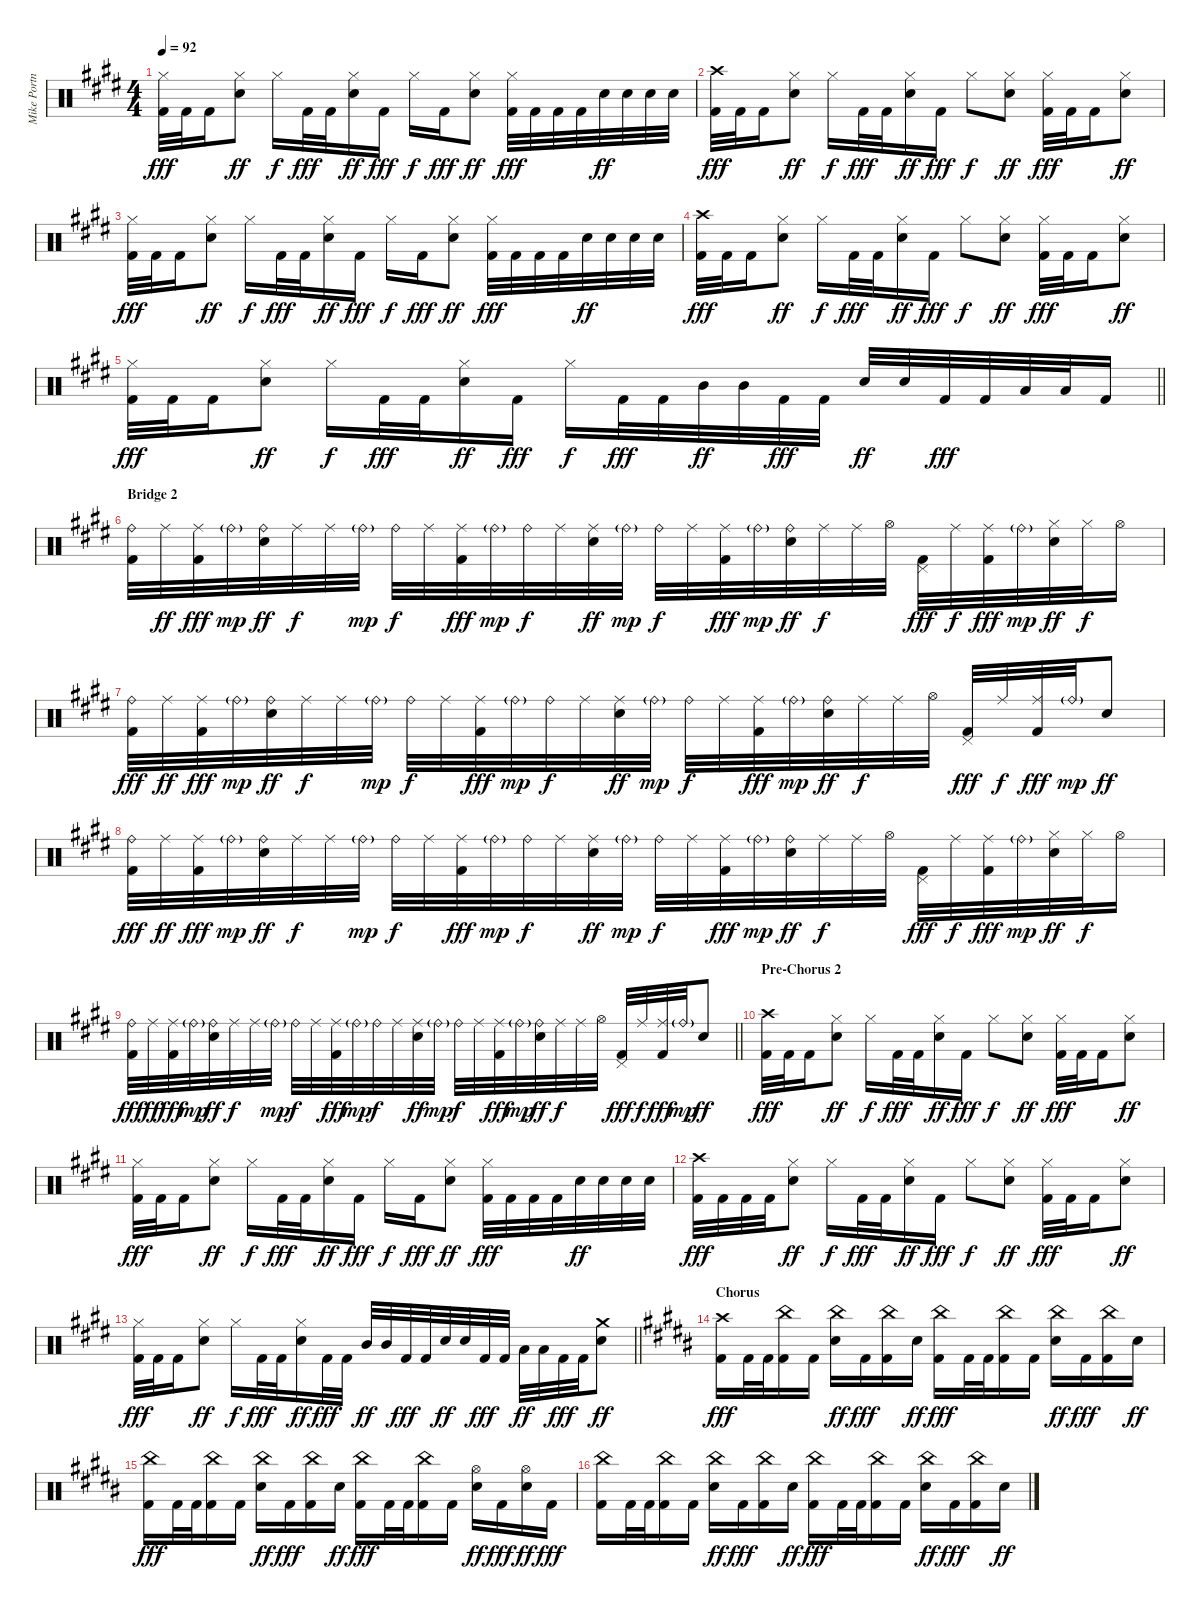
\track ("Mike Portnoy" "Mike Portn") {instrument percussion}
\staff {score}
\articulation defaults
\ts (4 4)
\tempo 92
\clef neutral
\ks e
("Hi-Hat (closed)" "Kick (hit) 2").32{dy fff} "Kick (hit) 2".32 "Kick (hit) 2".16 ("Hi-Hat (closed)" "Electric Snare (hit)").8{dy ff} "Hi-Hat (closed)".16{dy f} "Kick (hit) 2".32{dy fff} "Kick (hit) 2".32 ("Hi-Hat (closed)" "Electric Snare (hit)").16{dy ff} "Kick (hit) 2".16{dy fff} "Hi-Hat (closed)".16{dy f} "Kick (hit) 2".16{dy fff} ("Hi-Hat (closed)" "Electric Snare (hit)").8{dy ff} ("Hi-Hat (closed)" "Kick (hit) 2").32{dy fff} "Kick (hit) 2".32 "Kick (hit) 2".32 "Kick (hit) 2".32 "Electric Snare (hit)".32{dy ff} "Electric Snare (hit)".32 "Electric Snare (hit)".32 "Electric Snare (hit)".32 |
("Crash high (hit)" "Kick (hit) 2").32{dy fff} "Kick (hit) 2".32 "Kick (hit) 2".16 ("Hi-Hat (closed)" "Electric Snare (hit)").8{dy ff} "Hi-Hat (closed)".16{dy f} "Kick (hit) 2".32{dy fff} "Kick (hit) 2".32 ("Hi-Hat (closed)" "Electric Snare (hit)").16{dy ff} "Kick (hit) 2".16{dy fff} "Hi-Hat (closed)".8{dy f} ("Hi-Hat (closed)" "Electric Snare (hit)").8{dy ff} ("Hi-Hat (closed)" "Kick (hit) 2").32{dy fff} "Kick (hit) 2".32 "Kick (hit) 2".16 ("Hi-Hat (closed)" "Electric Snare (hit)").8{dy ff} |
("Hi-Hat (closed)" "Kick (hit) 2").32{dy fff} "Kick (hit) 2".32 "Kick (hit) 2".16 ("Hi-Hat (closed)" "Electric Snare (hit)").8{dy ff} "Hi-Hat (closed)".16{dy f} "Kick (hit) 2".32{dy fff} "Kick (hit) 2".32 ("Hi-Hat (closed)" "Electric Snare (hit)").16{dy ff} "Kick (hit) 2".16{dy fff} "Hi-Hat (closed)".16{dy f} "Kick (hit) 2".16{dy fff} ("Hi-Hat (closed)" "Electric Snare (hit)").8{dy ff} ("Hi-Hat (closed)" "Kick (hit) 2").32{dy fff} "Kick (hit) 2".32 "Kick (hit) 2".32 "Kick (hit) 2".32 "Electric Snare (hit)".32{dy ff} "Electric Snare (hit)".32 "Electric Snare (hit)".32 "Electric Snare (hit)".32 |
("Crash high (hit)" "Kick (hit) 2").32{dy fff} "Kick (hit) 2".32 "Kick (hit) 2".16 ("Hi-Hat (closed)" "Electric Snare (hit)").8{dy ff} "Hi-Hat (closed)".16{dy f} "Kick (hit) 2".32{dy fff} "Kick (hit) 2".32 ("Hi-Hat (closed)" "Electric Snare (hit)").16{dy ff} "Kick (hit) 2".16{dy fff} "Hi-Hat (closed)".8{dy f} ("Hi-Hat (closed)" "Electric Snare (hit)").8{dy ff} ("Hi-Hat (closed)" "Kick (hit) 2").32{dy fff} "Kick (hit) 2".32 "Kick (hit) 2".16 ("Hi-Hat (closed)" "Electric Snare (hit)").8{dy ff} |
\barLineRight lightlight
("Hi-Hat (closed)" "Kick (hit) 2").32{dy fff} "Kick (hit) 2".32 "Kick (hit) 2".16 ("Hi-Hat (closed)" "Electric Snare (hit)").8{dy ff} "Hi-Hat (closed)".16{dy f} "Kick (hit) 2".32{dy fff} "Kick (hit) 2".32 ("Hi-Hat (closed)" "Electric Snare (hit)").16{dy ff} "Kick (hit) 2".16{dy fff} "Hi-Hat (closed)".16{dy f} "Kick (hit) 2".32{dy fff} "Kick (hit) 2".32 "Mid Tom (hit)".32{dy ff} "Mid Tom (hit)".32 "Kick (hit) 2".32{dy fff} "Kick (hit) 2".32 "Electric Snare (hit)".32{dy ff} "Electric Snare (hit)".32 "Kick (hit) 2".32{dy fff} "Kick (hit) 2".32 "Low Tom (hit)".32 "Low Tom (hit)".32 "Kick (hit) 2".16 |
\section ("" "Bridge 2")
("Ride (bell)" "Kick (hit) 2").32 "Ride (middle)".32{dy ff} ("Ride (middle)" "Kick (hit) 2").32{dy fff} "Ride (bell)"{g}.32{dy mp} ("Ride (bell)" "Electric Snare (hit)").32{dy ff} "Ride (middle)".32{dy f} "Ride (middle)".32 "Ride (bell)"{g}.32{dy mp} "Ride (bell)".32{dy f} "Ride (middle)".32 ("Ride (middle)" "Kick (hit) 2").32{dy fff} "Ride (bell)"{g}.32{dy mp} "Ride (bell)".32{dy f} "Ride (middle)".32 ("Ride (middle)" "Electric Snare (hit)").32{dy ff} "Ride (bell)"{g}.32{dy mp} "Ride (bell)".32{dy f} "Ride (middle)".32 ("Ride (middle)" "Kick (hit) 2").32{dy fff} "Ride (bell)"{g}.32{dy mp} ("Ride (bell)" "Electric Snare (hit)").32{dy ff} "Ride (middle)".32{dy f} "Ride (middle)".32 "Hi-Hat (open)".32 ("Pedal Hi-Hat (hit)" "Kick (hit) 2").32{dy fff} "Ride (middle)".32{dy f} ("Ride (middle)" "Kick (hit) 2").32{dy fff} "Ride (bell)"{g}.32{dy mp} ("Hi-Hat (closed)" "Electric Snare (hit)").32{dy ff} "Hi-Hat (closed)".32{dy f} "Hi-Hat (open)".16 |
("Ride (bell)" "Kick (hit) 2").32{dy fff} "Ride (middle)".32{dy ff} ("Ride (middle)" "Kick (hit) 2").32{dy fff} "Ride (bell)"{g}.32{dy mp} ("Ride (bell)" "Electric Snare (hit)").32{dy ff} "Ride (middle)".32{dy f} "Ride (middle)".32 "Ride (bell)"{g}.32{dy mp} "Ride (bell)".32{dy f} "Ride (middle)".32 ("Ride (middle)" "Kick (hit) 2").32{dy fff} "Ride (bell)"{g}.32{dy mp} "Ride (bell)".32{dy f} "Ride (middle)".32 ("Ride (middle)" "Electric Snare (hit)").32{dy ff} "Ride (bell)"{g}.32{dy mp} "Ride (bell)".32{dy f} "Ride (middle)".32 ("Ride (middle)" "Kick (hit) 2").32{dy fff} "Ride (bell)"{g}.32{dy mp} ("Ride (bell)" "Electric Snare (hit)").32{dy ff} "Ride (middle)".32{dy f} "Ride (middle)".32 "Hi-Hat (open)".32 ("Pedal Hi-Hat (hit)" "Kick (hit) 2").32{dy fff} "Ride (middle)".32{dy f} ("Ride (middle)" "Kick (hit) 2").32{dy fff} "Ride (bell)"{g}.32{dy mp} "Electric Snare (hit)".8{dy ff} |
("Ride (bell)" "Kick (hit) 2").32{dy fff} "Ride (middle)".32{dy ff} ("Ride (middle)" "Kick (hit) 2").32{dy fff} "Ride (bell)"{g}.32{dy mp} ("Ride (bell)" "Electric Snare (hit)").32{dy ff} "Ride (middle)".32{dy f} "Ride (middle)".32 "Ride (bell)"{g}.32{dy mp} "Ride (bell)".32{dy f} "Ride (middle)".32 ("Ride (middle)" "Kick (hit) 2").32{dy fff} "Ride (bell)"{g}.32{dy mp} "Ride (bell)".32{dy f} "Ride (middle)".32 ("Ride (middle)" "Electric Snare (hit)").32{dy ff} "Ride (bell)"{g}.32{dy mp} "Ride (bell)".32{dy f} "Ride (middle)".32 ("Ride (middle)" "Kick (hit) 2").32{dy fff} "Ride (bell)"{g}.32{dy mp} ("Ride (bell)" "Electric Snare (hit)").32{dy ff} "Ride (middle)".32{dy f} "Ride (middle)".32 "Hi-Hat (open)".32 ("Pedal Hi-Hat (hit)" "Kick (hit) 2").32{dy fff} "Ride (middle)".32{dy f} ("Ride (middle)" "Kick (hit) 2").32{dy fff} "Ride (bell)"{g}.32{dy mp} ("Hi-Hat (closed)" "Electric Snare (hit)").32{dy ff} "Hi-Hat (closed)".32{dy f} "Hi-Hat (open)".16 |
\barLineRight lightlight
("Ride (bell)" "Kick (hit) 2").32{dy fff} "Ride (middle)".32{dy ff} ("Ride (middle)" "Kick (hit) 2").32{dy fff} "Ride (bell)"{g}.32{dy mp} ("Ride (bell)" "Electric Snare (hit)").32{dy ff} "Ride (middle)".32{dy f} "Ride (middle)".32 "Ride (bell)"{g}.32{dy mp} "Ride (bell)".32{dy f} "Ride (middle)".32 ("Ride (middle)" "Kick (hit) 2").32{dy fff} "Ride (bell)"{g}.32{dy mp} "Ride (bell)".32{dy f} "Ride (middle)".32 ("Ride (middle)" "Electric Snare (hit)").32{dy ff} "Ride (bell)"{g}.32{dy mp} "Ride (bell)".32{dy f} "Ride (middle)".32 ("Ride (middle)" "Kick (hit) 2").32{dy fff} "Ride (bell)"{g}.32{dy mp} ("Ride (bell)" "Electric Snare (hit)").32{dy ff} "Ride (middle)".32{dy f} "Ride (middle)".32 "Hi-Hat (open)".32 ("Pedal Hi-Hat (hit)" "Kick (hit) 2").32{dy fff} "Ride (middle)".32{dy f} ("Ride (middle)" "Kick (hit) 2").32{dy fff} "Ride (bell)"{g}.32{dy mp} "Electric Snare (hit)".8{dy ff} |
\section ("" "Pre-Chorus 2")
("Crash high (hit)" "Kick (hit) 2").32{dy fff} "Kick (hit) 2".32 "Kick (hit) 2".16 ("Hi-Hat (closed)" "Electric Snare (hit)").8{dy ff} "Hi-Hat (closed)".16{dy f} "Kick (hit) 2".32{dy fff} "Kick (hit) 2".32 ("Hi-Hat (closed)" "Electric Snare (hit)").16{dy ff} "Kick (hit) 2".16{dy fff} "Hi-Hat (closed)".8{dy f} ("Hi-Hat (closed)" "Electric Snare (hit)").8{dy ff} ("Hi-Hat (closed)" "Kick (hit) 2").32{dy fff} "Kick (hit) 2".32 "Kick (hit) 2".16 ("Hi-Hat (closed)" "Electric Snare (hit)").8{dy ff} |
("Hi-Hat (closed)" "Kick (hit) 2").32{dy fff} "Kick (hit) 2".32 "Kick (hit) 2".16 ("Hi-Hat (closed)" "Electric Snare (hit)").8{dy ff} "Hi-Hat (closed)".16{dy f} "Kick (hit) 2".32{dy fff} "Kick (hit) 2".32 ("Hi-Hat (closed)" "Electric Snare (hit)").16{dy ff} "Kick (hit) 2".16{dy fff} "Hi-Hat (closed)".16{dy f} "Kick (hit) 2".16{dy fff} ("Hi-Hat (closed)" "Electric Snare (hit)").8{dy ff} ("Hi-Hat (closed)" "Kick (hit) 2").32{dy fff} "Kick (hit) 2".32 "Kick (hit) 2".32 "Kick (hit) 2".32 "Electric Snare (hit)".32{dy ff} "Electric Snare (hit)".32 "Electric Snare (hit)".32 "Electric Snare (hit)".32 |
("Crash high (hit)" "Kick (hit) 2").32{dy fff} "Kick (hit) 2".32 "Kick (hit) 2".32 "Kick (hit) 2".32 ("Hi-Hat (closed)" "Electric Snare (hit)").8{dy ff} "Hi-Hat (closed)".16{dy f} "Kick (hit) 2".32{dy fff} "Kick (hit) 2".32 ("Hi-Hat (closed)" "Electric Snare (hit)").16{dy ff} "Kick (hit) 2".16{dy fff} "Hi-Hat (closed)".8{dy f} ("Hi-Hat (closed)" "Electric Snare (hit)").8{dy ff} ("Hi-Hat (closed)" "Kick (hit) 2").32{dy fff} "Kick (hit) 2".32 "Kick (hit) 2".16 ("Hi-Hat (closed)" "Electric Snare (hit)").8{dy ff} |
\barLineRight lightlight
("Hi-Hat (closed)" "Kick (hit) 2").32{dy fff} "Kick (hit) 2".32 "Kick (hit) 2".16 ("Hi-Hat (closed)" "Electric Snare (hit)").8{dy ff} "Hi-Hat (closed)".16{dy f} "Kick (hit) 2".32{dy fff} "Kick (hit) 2".32 ("Hi-Hat (closed)" "Electric Snare (hit)").16{dy ff} "Kick (hit) 2".32{dy fff} "Kick (hit) 2".32 "Mid Tom (hit)".32{dy ff} "Mid Tom (hit)".32 "Kick (hit) 2".32{dy fff} "Kick (hit) 2".32 "Electric Snare (hit)".32{dy ff} "Electric Snare (hit)".32 "Kick (hit) 2".32{dy fff} "Kick (hit) 2".32 "Low Tom (hit)".32{dy ff} "Low Tom (hit)".32 "Kick (hit) 2".32{dy fff} "Kick (hit) 2".32 ("Crash medium (hit)" "Electric Snare (hit)").8{dy ff} |
\section ("" "Chorus")
\ks b
("Crash high (hit)" "Kick (hit) 2").16{dy fff} "Kick (hit) 2".32 "Kick (hit) 2".32 ("China (hit)" "Kick (hit) 2").16 "Kick (hit) 2".16 ("China (hit)" "Electric Snare (hit)").16{dy ff} "Kick (hit) 2".16{dy fff} ("China (hit)" "Kick (hit) 2").16 "Electric Snare (hit)".16{dy ff} ("China (hit)" "Kick (hit) 2").16{dy fff} "Kick (hit) 2".32 "Kick (hit) 2".32 ("China (hit)" "Kick (hit) 2").16 "Kick (hit) 2".16 ("China (hit)" "Electric Snare (hit)").16{dy ff} "Kick (hit) 2".16{dy fff} ("China (hit)" "Kick (hit) 2").16 "Electric Snare (hit)".16{dy ff} |
("China (hit)" "Kick (hit) 2").16{dy fff} "Kick (hit) 2".32 "Kick (hit) 2".32 ("China (hit)" "Kick (hit) 2").16 "Kick (hit) 2".16 ("China (hit)" "Electric Snare (hit)").16{dy ff} "Kick (hit) 2".16{dy fff} ("China (hit)" "Kick (hit) 2").16 "Electric Snare (hit)".16{dy ff} ("China (hit)" "Kick (hit) 2").16{dy fff} "Kick (hit) 2".32 "Kick (hit) 2".32 ("China (hit)" "Kick (hit) 2").16 "Kick (hit) 2".16 ("Hi-Hat (open)" "Electric Snare (hit)").16{dy ff} "Kick (hit) 2".16{dy fff} ("Hi-Hat (open)" "Electric Snare (hit)").16{dy ff} "Kick (hit) 2".16{dy fff} |
("China (hit)" "Kick (hit) 2").16 "Kick (hit) 2".32 "Kick (hit) 2".32 ("China (hit)" "Kick (hit) 2").16 "Kick (hit) 2".16 ("China (hit)" "Electric Snare (hit)").16{dy ff} "Kick (hit) 2".16{dy fff} ("China (hit)" "Kick (hit) 2").16 "Electric Snare (hit)".16{dy ff} ("China (hit)" "Kick (hit) 2").16{dy fff} "Kick (hit) 2".32 "Kick (hit) 2".32 ("China (hit)" "Kick (hit) 2").16 "Kick (hit) 2".16 ("China (hit)" "Electric Snare (hit)").16{dy ff} "Kick (hit) 2".16{dy fff} ("China (hit)" "Kick (hit) 2").16 "Electric Snare (hit)".16{dy ff}
